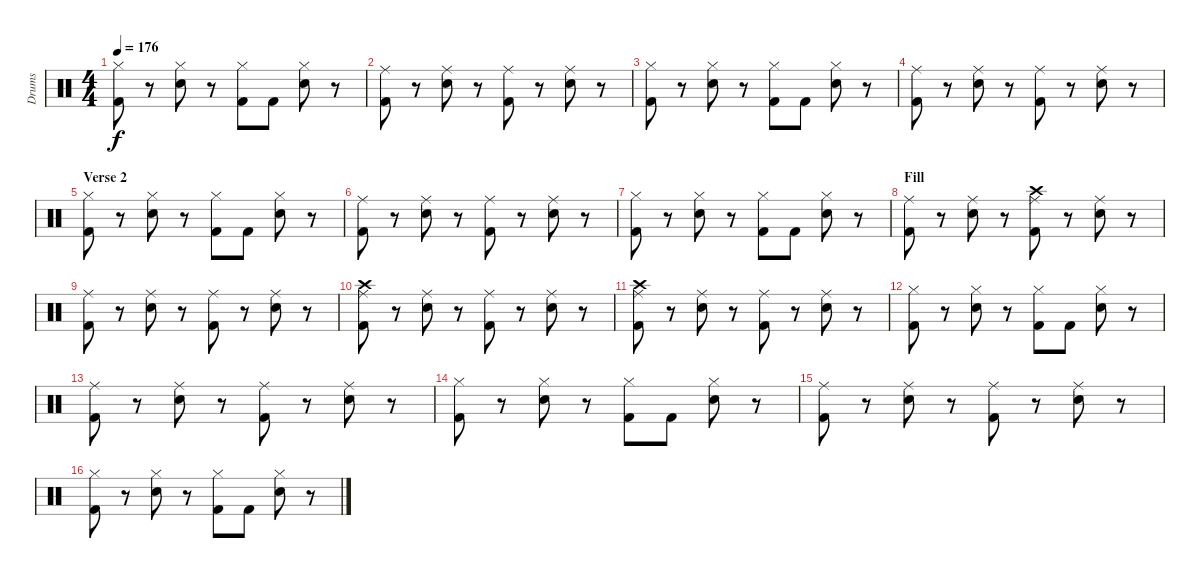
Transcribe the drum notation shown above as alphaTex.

\track ("Drums" "Drums") {instrument percussion}
\staff {score}
\articulation defaults
\ts (4 4)
\tempo 176
\clef neutral
\ks c
("Hi-Hat (closed)" "Kick (hit) 2").8{dy f} r.8 ("Hi-Hat (closed)" "Electric Snare (hit)").8 r.8 ("Hi-Hat (closed)" "Kick (hit) 2").8 "Kick (hit) 2".8 ("Hi-Hat (closed)" "Electric Snare (hit)").8 r.8 |
("Ride (middle)" "Kick (hit) 2").8 r.8 ("Ride (middle)" "Electric Snare (hit)").8 r.8 ("Ride (middle)" "Kick (hit) 2").8 r.8 ("Ride (middle)" "Electric Snare (hit)").8 r.8 |
("Hi-Hat (closed)" "Kick (hit) 2").8 r.8 ("Hi-Hat (closed)" "Electric Snare (hit)").8 r.8 ("Hi-Hat (closed)" "Kick (hit) 2").8 "Kick (hit) 2".8 ("Hi-Hat (closed)" "Electric Snare (hit)").8 r.8 |
("Ride (middle)" "Kick (hit) 2").8 r.8 ("Ride (middle)" "Electric Snare (hit)").8 r.8 ("Ride (middle)" "Kick (hit) 2").8 r.8 ("Ride (middle)" "Electric Snare (hit)").8 r.8 |
\section ("" "Verse 2")
("Hi-Hat (closed)" "Kick (hit) 2").8 r.8 ("Hi-Hat (closed)" "Electric Snare (hit)").8 r.8 ("Hi-Hat (closed)" "Kick (hit) 2").8 "Kick (hit) 2".8 ("Hi-Hat (closed)" "Electric Snare (hit)").8 r.8 |
("Ride (middle)" "Kick (hit) 2").8 r.8 ("Ride (middle)" "Electric Snare (hit)").8 r.8 ("Ride (middle)" "Kick (hit) 2").8 r.8 ("Ride (middle)" "Electric Snare (hit)").8 r.8 |
("Hi-Hat (closed)" "Kick (hit) 2").8 r.8 ("Hi-Hat (closed)" "Electric Snare (hit)").8 r.8 ("Hi-Hat (closed)" "Kick (hit) 2").8 "Kick (hit) 2".8 ("Hi-Hat (closed)" "Electric Snare (hit)").8 r.8 |
\section ("" "Fill")
("Ride (middle)" "Kick (hit) 2").8 r.8 ("Ride (middle)" "Electric Snare (hit)").8 r.8 ("Crash high (hit)" "Ride (middle)" "Kick (hit) 2").8 r.8 ("Ride (middle)" "Electric Snare (hit)").8 r.8 |
("Ride (middle)" "Kick (hit) 2").8 r.8 ("Ride (middle)" "Electric Snare (hit)").8 r.8 ("Ride (middle)" "Kick (hit) 2").8 r.8 ("Ride (middle)" "Electric Snare (hit)").8 r.8 |
("Crash high (hit)" "Ride (middle)" "Kick (hit) 2").8 r.8 ("Ride (middle)" "Electric Snare (hit)").8 r.8 ("Ride (middle)" "Kick (hit) 2").8 r.8 ("Ride (middle)" "Electric Snare (hit)").8 r.8 |
("Crash high (hit)" "Ride (middle)" "Kick (hit) 2").8 r.8 ("Ride (middle)" "Electric Snare (hit)").8 r.8 ("Ride (middle)" "Kick (hit) 2").8 r.8 ("Ride (middle)" "Electric Snare (hit)").8 r.8 |
("Hi-Hat (closed)" "Kick (hit) 2").8 r.8 ("Hi-Hat (closed)" "Electric Snare (hit)").8 r.8 ("Hi-Hat (closed)" "Kick (hit) 2").8 "Kick (hit) 2".8 ("Hi-Hat (closed)" "Electric Snare (hit)").8 r.8 |
("Ride (middle)" "Kick (hit) 2").8 r.8 ("Ride (middle)" "Electric Snare (hit)").8 r.8 ("Ride (middle)" "Kick (hit) 2").8 r.8 ("Ride (middle)" "Electric Snare (hit)").8 r.8 |
("Hi-Hat (closed)" "Kick (hit) 2").8 r.8 ("Hi-Hat (closed)" "Electric Snare (hit)").8 r.8 ("Hi-Hat (closed)" "Kick (hit) 2").8 "Kick (hit) 2".8 ("Hi-Hat (closed)" "Electric Snare (hit)").8 r.8 |
("Ride (middle)" "Kick (hit) 2").8 r.8 ("Ride (middle)" "Electric Snare (hit)").8 r.8 ("Ride (middle)" "Kick (hit) 2").8 r.8 ("Ride (middle)" "Electric Snare (hit)").8 r.8 |
("Hi-Hat (closed)" "Kick (hit) 2").8 r.8 ("Hi-Hat (closed)" "Electric Snare (hit)").8 r.8 ("Hi-Hat (closed)" "Kick (hit) 2").8 "Kick (hit) 2".8 ("Hi-Hat (closed)" "Electric Snare (hit)").8 r.8
